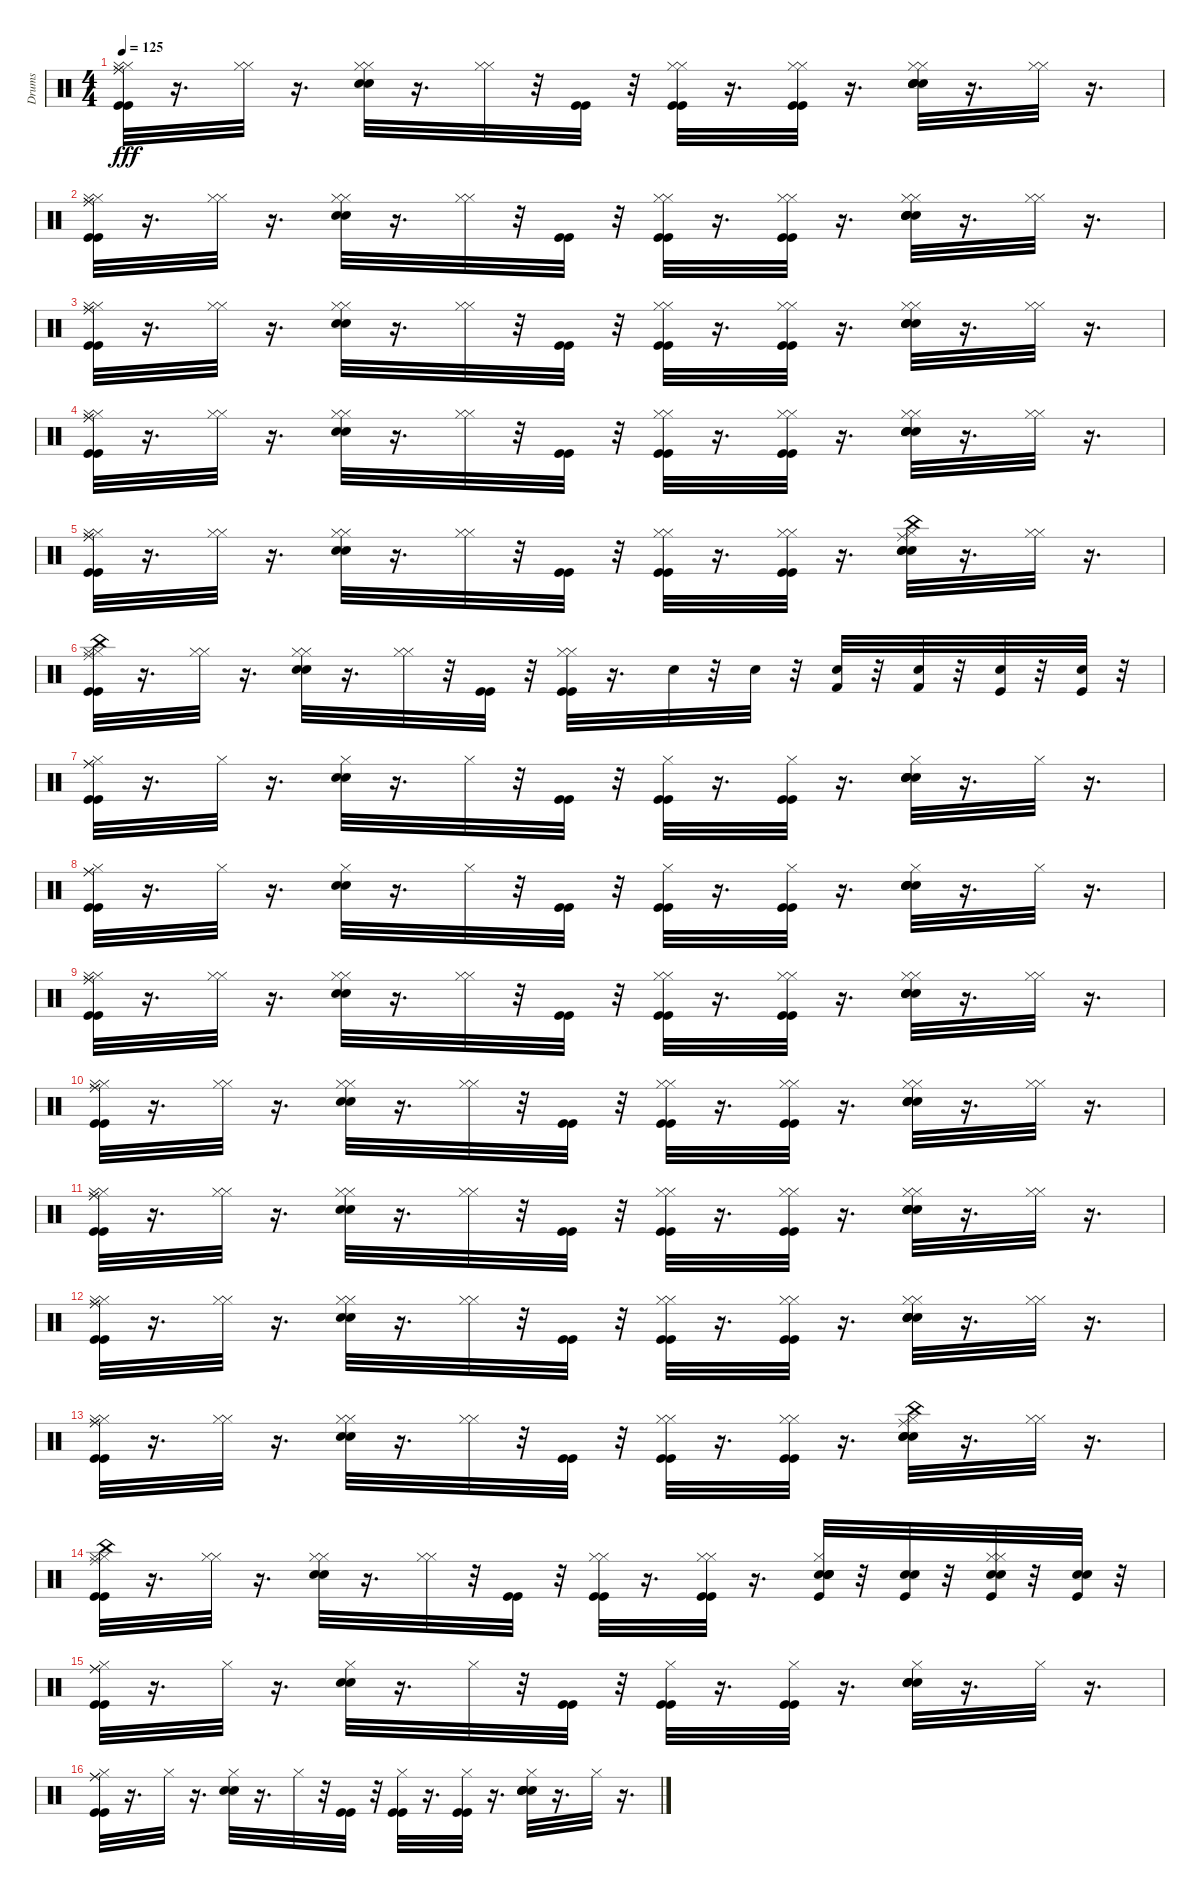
\track ("Drums" "Drums") {instrument percussion}
\staff {score}
\articulation defaults
\ts (4 4)
\tempo 125
\clef neutral
\ks c
("Kick (hit)" "Hi-Hat (closed)" "Ride (middle)" "Kick (hit)" "Hi-Hat (closed)" "Ride (middle)").32{dy fff} r.16{d} ("Hi-Hat (closed)" "Hi-Hat (closed)").32 r.16{d} ("Snare (hit) 2" "Electric Snare (hit)" "Hi-Hat (closed)" "Hi-Hat (closed)").32 r.16{d} ("Hi-Hat (closed)" "Hi-Hat (closed)").32 r.32 ("Kick (hit)" "Kick (hit)").32 r.32 ("Kick (hit)" "Hi-Hat (closed)" "Kick (hit)" "Hi-Hat (closed)").32 r.16{d} ("Kick (hit)" "Hi-Hat (closed)" "Kick (hit)" "Hi-Hat (closed)").32 r.16{d} ("Snare (hit) 2" "Electric Snare (hit)" "Hi-Hat (closed)" "Snare (hit) 2" "Electric Snare (hit)" "Hi-Hat (closed)").32 r.16{d} ("Hi-Hat (closed)" "Hi-Hat (closed)").32 r.16{d} |
("Kick (hit)" "Hi-Hat (closed)" "Ride (middle)" "Kick (hit)" "Hi-Hat (closed)" "Ride (middle)").32 r.16{d} ("Hi-Hat (closed)" "Hi-Hat (closed)").32 r.16{d} ("Snare (hit) 2" "Electric Snare (hit)" "Hi-Hat (closed)" "Hi-Hat (closed)").32 r.16{d} ("Hi-Hat (closed)" "Hi-Hat (closed)").32 r.32 ("Kick (hit)" "Kick (hit)").32 r.32 ("Kick (hit)" "Hi-Hat (closed)" "Kick (hit)" "Hi-Hat (closed)").32 r.16{d} ("Kick (hit)" "Hi-Hat (closed)" "Kick (hit)" "Hi-Hat (closed)").32 r.16{d} ("Snare (hit) 2" "Electric Snare (hit)" "Hi-Hat (closed)" "Snare (hit) 2" "Electric Snare (hit)" "Hi-Hat (closed)").32 r.16{d} ("Hi-Hat (closed)" "Hi-Hat (closed)").32 r.16{d} |
("Kick (hit)" "Hi-Hat (closed)" "Ride (middle)" "Kick (hit)" "Hi-Hat (closed)" "Ride (middle)").32 r.16{d} ("Hi-Hat (closed)" "Hi-Hat (closed)").32 r.16{d} ("Snare (hit) 2" "Electric Snare (hit)" "Hi-Hat (closed)" "Hi-Hat (closed)").32 r.16{d} ("Hi-Hat (closed)" "Hi-Hat (closed)").32 r.32 ("Kick (hit)" "Kick (hit)").32 r.32 ("Kick (hit)" "Hi-Hat (closed)" "Kick (hit)" "Hi-Hat (closed)").32 r.16{d} ("Kick (hit)" "Hi-Hat (closed)" "Kick (hit)" "Hi-Hat (closed)").32 r.16{d} ("Snare (hit) 2" "Electric Snare (hit)" "Hi-Hat (closed)" "Snare (hit) 2" "Electric Snare (hit)" "Hi-Hat (closed)").32 r.16{d} ("Hi-Hat (closed)" "Hi-Hat (closed)").32 r.16{d} |
("Kick (hit)" "Hi-Hat (closed)" "Ride (middle)" "Kick (hit)" "Hi-Hat (closed)" "Ride (middle)").32 r.16{d} ("Hi-Hat (closed)" "Hi-Hat (closed)").32 r.16{d} ("Snare (hit) 2" "Electric Snare (hit)" "Hi-Hat (closed)" "Hi-Hat (closed)").32 r.16{d} ("Hi-Hat (closed)" "Hi-Hat (closed)").32 r.32 ("Kick (hit)" "Kick (hit)").32 r.32 ("Kick (hit)" "Hi-Hat (closed)" "Kick (hit)" "Hi-Hat (closed)").32 r.16{d} ("Kick (hit)" "Hi-Hat (closed)" "Kick (hit)" "Hi-Hat (closed)").32 r.16{d} ("Snare (hit) 2" "Electric Snare (hit)" "Hi-Hat (closed)" "Snare (hit) 2" "Electric Snare (hit)" "Hi-Hat (closed)").32 r.16{d} ("Hi-Hat (closed)" "Hi-Hat (closed)").32 r.16{d} |
("Kick (hit)" "Hi-Hat (closed)" "Ride (middle)" "Kick (hit)" "Hi-Hat (closed)" "Ride (middle)").32 r.16{d} ("Hi-Hat (closed)" "Hi-Hat (closed)").32 r.16{d} ("Electric Snare (hit)" "Snare (hit) 2" "Hi-Hat (closed)" "Hi-Hat (closed)").32 r.16{d} ("Hi-Hat (closed)" "Hi-Hat (closed)").32 r.32 ("Kick (hit)" "Kick (hit)").32 r.32 ("Kick (hit)" "Hi-Hat (closed)" "Kick (hit)" "Hi-Hat (closed)").32 r.16{d} ("Kick (hit)" "Hi-Hat (closed)" "Kick (hit)" "Hi-Hat (closed)").32 r.16{d} ("Ride (middle)" "China (hit)" "Snare (hit) 2" "Electric Snare (hit)" "Hi-Hat (closed)" "Snare (hit) 2").32 r.16{d} ("Hi-Hat (closed)" "Hi-Hat (closed)").32 r.16{d} |
("China (hit)" "Kick (hit)" "Hi-Hat (closed)" "Ride (middle)" "Kick (hit)" "Hi-Hat (closed)").32 r.16{d} ("Hi-Hat (closed)" "Hi-Hat (closed)").32 r.16{d} ("Snare (hit) 2" "Electric Snare (hit)" "Hi-Hat (closed)" "Hi-Hat (closed)").32 r.16{d} ("Hi-Hat (closed)" "Hi-Hat (closed)").32 r.32 ("Kick (hit)" "Kick (hit)").32 r.32 ("Kick (hit)" "Hi-Hat (closed)" "Kick (hit)" "Hi-Hat (closed)").32 r.16{d} "Electric Snare (hit)".32 r.32 "Electric Snare (hit)".32 r.32 ("Kick (hit) 2" "Electric Snare (hit)").32 r.32 ("Kick (hit) 2" "Electric Snare (hit)").32 r.32 ("Snare (hit) 2" "Kick (hit)").32 r.32 ("Snare (hit) 2" "Kick (hit)").32 r.32 |
("Hi-Hat (closed)" "Kick (hit)" "Ride (middle)" "Kick (hit)" "Ride (middle)").32 r.16{d} "Hi-Hat (closed)".32 r.16{d} ("Snare (hit) 2" "Electric Snare (hit)" "Hi-Hat (closed)").32 r.16{d} "Hi-Hat (closed)".32 r.32 ("Kick (hit)" "Kick (hit)").32 r.32 ("Hi-Hat (closed)" "Kick (hit)" "Kick (hit)").32 r.16{d} ("Hi-Hat (closed)" "Kick (hit)" "Kick (hit)").32 r.16{d} ("Hi-Hat (closed)" "Snare (hit) 2" "Electric Snare (hit)" "Snare (hit) 2" "Electric Snare (hit)").32 r.16{d} "Hi-Hat (closed)".32 r.16{d} |
("Hi-Hat (closed)" "Kick (hit)" "Ride (middle)" "Kick (hit)" "Ride (middle)").32 r.16{d} "Hi-Hat (closed)".32 r.16{d} ("Snare (hit) 2" "Electric Snare (hit)" "Hi-Hat (closed)").32 r.16{d} "Hi-Hat (closed)".32 r.32 ("Kick (hit)" "Kick (hit)").32 r.32 ("Hi-Hat (closed)" "Kick (hit)" "Kick (hit)").32 r.16{d} ("Hi-Hat (closed)" "Kick (hit)" "Kick (hit)").32 r.16{d} ("Hi-Hat (closed)" "Snare (hit) 2" "Electric Snare (hit)" "Snare (hit) 2" "Electric Snare (hit)").32 r.16{d} "Hi-Hat (closed)".32 r.16{d} |
("Kick (hit)" "Hi-Hat (closed)" "Ride (middle)" "Kick (hit)" "Hi-Hat (closed)" "Ride (middle)").32 r.16{d} ("Hi-Hat (closed)" "Hi-Hat (closed)").32 r.16{d} ("Snare (hit) 2" "Electric Snare (hit)" "Hi-Hat (closed)" "Hi-Hat (closed)").32 r.16{d} ("Hi-Hat (closed)" "Hi-Hat (closed)").32 r.32 ("Kick (hit)" "Kick (hit)").32 r.32 ("Kick (hit)" "Hi-Hat (closed)" "Kick (hit)" "Hi-Hat (closed)").32 r.16{d} ("Kick (hit)" "Hi-Hat (closed)" "Kick (hit)" "Hi-Hat (closed)").32 r.16{d} ("Snare (hit) 2" "Electric Snare (hit)" "Hi-Hat (closed)" "Snare (hit) 2" "Electric Snare (hit)" "Hi-Hat (closed)").32 r.16{d} ("Hi-Hat (closed)" "Hi-Hat (closed)").32 r.16{d} |
("Kick (hit)" "Hi-Hat (closed)" "Ride (middle)" "Kick (hit)" "Hi-Hat (closed)" "Ride (middle)").32 r.16{d} ("Hi-Hat (closed)" "Hi-Hat (closed)").32 r.16{d} ("Snare (hit) 2" "Electric Snare (hit)" "Hi-Hat (closed)" "Hi-Hat (closed)").32 r.16{d} ("Hi-Hat (closed)" "Hi-Hat (closed)").32 r.32 ("Kick (hit)" "Kick (hit)").32 r.32 ("Kick (hit)" "Hi-Hat (closed)" "Kick (hit)" "Hi-Hat (closed)").32 r.16{d} ("Kick (hit)" "Hi-Hat (closed)" "Kick (hit)" "Hi-Hat (closed)").32 r.16{d} ("Snare (hit) 2" "Electric Snare (hit)" "Hi-Hat (closed)" "Snare (hit) 2" "Electric Snare (hit)" "Hi-Hat (closed)").32 r.16{d} ("Hi-Hat (closed)" "Hi-Hat (closed)").32 r.16{d} |
("Kick (hit)" "Hi-Hat (closed)" "Ride (middle)" "Kick (hit)" "Hi-Hat (closed)" "Ride (middle)").32 r.16{d} ("Hi-Hat (closed)" "Hi-Hat (closed)").32 r.16{d} ("Snare (hit) 2" "Electric Snare (hit)" "Hi-Hat (closed)" "Hi-Hat (closed)").32 r.16{d} ("Hi-Hat (closed)" "Hi-Hat (closed)").32 r.32 ("Kick (hit)" "Kick (hit)").32 r.32 ("Kick (hit)" "Hi-Hat (closed)" "Kick (hit)" "Hi-Hat (closed)").32 r.16{d} ("Kick (hit)" "Hi-Hat (closed)" "Kick (hit)" "Hi-Hat (closed)").32 r.16{d} ("Snare (hit) 2" "Electric Snare (hit)" "Hi-Hat (closed)" "Snare (hit) 2" "Electric Snare (hit)" "Hi-Hat (closed)").32 r.16{d} ("Hi-Hat (closed)" "Hi-Hat (closed)").32 r.16{d} |
("Kick (hit)" "Hi-Hat (closed)" "Ride (middle)" "Kick (hit)" "Hi-Hat (closed)" "Ride (middle)").32 r.16{d} ("Hi-Hat (closed)" "Hi-Hat (closed)").32 r.16{d} ("Snare (hit) 2" "Electric Snare (hit)" "Hi-Hat (closed)" "Hi-Hat (closed)").32 r.16{d} ("Hi-Hat (closed)" "Hi-Hat (closed)").32 r.32 ("Kick (hit)" "Kick (hit)").32 r.32 ("Kick (hit)" "Hi-Hat (closed)" "Kick (hit)" "Hi-Hat (closed)").32 r.16{d} ("Kick (hit)" "Hi-Hat (closed)" "Kick (hit)" "Hi-Hat (closed)").32 r.16{d} ("Snare (hit) 2" "Electric Snare (hit)" "Hi-Hat (closed)" "Snare (hit) 2" "Electric Snare (hit)" "Hi-Hat (closed)").32 r.16{d} ("Hi-Hat (closed)" "Hi-Hat (closed)").32 r.16{d} |
("Kick (hit)" "Hi-Hat (closed)" "Ride (middle)" "Kick (hit)" "Hi-Hat (closed)" "Ride (middle)").32 r.16{d} ("Hi-Hat (closed)" "Hi-Hat (closed)").32 r.16{d} ("Electric Snare (hit)" "Snare (hit) 2" "Hi-Hat (closed)" "Hi-Hat (closed)").32 r.16{d} ("Hi-Hat (closed)" "Hi-Hat (closed)").32 r.32 ("Kick (hit)" "Kick (hit)").32 r.32 ("Kick (hit)" "Hi-Hat (closed)" "Kick (hit)" "Hi-Hat (closed)").32 r.16{d} ("Kick (hit)" "Hi-Hat (closed)" "Kick (hit)" "Hi-Hat (closed)").32 r.16{d} ("Ride (middle)" "China (hit)" "Snare (hit) 2" "Electric Snare (hit)" "Hi-Hat (closed)" "Snare (hit) 2").32 r.16{d} ("Hi-Hat (closed)" "Hi-Hat (closed)").32 r.16{d} |
("China (hit)" "Kick (hit)" "Hi-Hat (closed)" "Ride (middle)" "Kick (hit)" "Hi-Hat (closed)").32 r.16{d} ("Hi-Hat (closed)" "Hi-Hat (closed)").32 r.16{d} ("Snare (hit) 2" "Electric Snare (hit)" "Hi-Hat (closed)" "Hi-Hat (closed)").32 r.16{d} ("Hi-Hat (closed)" "Hi-Hat (closed)").32 r.32 ("Kick (hit)" "Kick (hit)").32 r.32 ("Kick (hit)" "Hi-Hat (closed)" "Kick (hit)" "Hi-Hat (closed)").32 r.16{d} ("Kick (hit)" "Hi-Hat (closed)" "Kick (hit)" "Hi-Hat (closed)").32 r.16{d} ("Kick (hit)" "Snare (hit) 2" "Electric Snare (hit)" "Hi-Hat (closed)" "Snare (hit) 2" "Electric Snare (hit)").32 r.32 ("Electric Snare (hit)" "Snare (hit) 2" "Kick (hit)").32 r.32 ("Snare (hit) 2" "Electric Snare (hit)" "Kick (hit)" "Hi-Hat (closed)" "Hi-Hat (closed)").32 r.32 ("Electric Snare (hit)" "Snare (hit) 2" "Kick (hit)").32 r.32 |
("Hi-Hat (closed)" "Kick (hit)" "Ride (middle)" "Kick (hit)" "Ride (middle)").32 r.16{d} "Hi-Hat (closed)".32 r.16{d} ("Snare (hit) 2" "Electric Snare (hit)" "Hi-Hat (closed)").32 r.16{d} "Hi-Hat (closed)".32 r.32 ("Kick (hit)" "Kick (hit)").32 r.32 ("Hi-Hat (closed)" "Kick (hit)" "Kick (hit)").32 r.16{d} ("Hi-Hat (closed)" "Kick (hit)" "Kick (hit)").32 r.16{d} ("Hi-Hat (closed)" "Snare (hit) 2" "Electric Snare (hit)" "Snare (hit) 2" "Electric Snare (hit)").32 r.16{d} "Hi-Hat (closed)".32 r.16{d} |
("Hi-Hat (closed)" "Kick (hit)" "Ride (middle)" "Kick (hit)" "Ride (middle)").32 r.16{d} "Hi-Hat (closed)".32 r.16{d} ("Snare (hit) 2" "Electric Snare (hit)" "Hi-Hat (closed)").32 r.16{d} "Hi-Hat (closed)".32 r.32 ("Kick (hit)" "Kick (hit)").32 r.32 ("Hi-Hat (closed)" "Kick (hit)" "Kick (hit)").32 r.16{d} ("Hi-Hat (closed)" "Kick (hit)" "Kick (hit)").32 r.16{d} ("Hi-Hat (closed)" "Snare (hit) 2" "Electric Snare (hit)" "Snare (hit) 2" "Electric Snare (hit)").32 r.16{d} "Hi-Hat (closed)".32 r.16{d}
